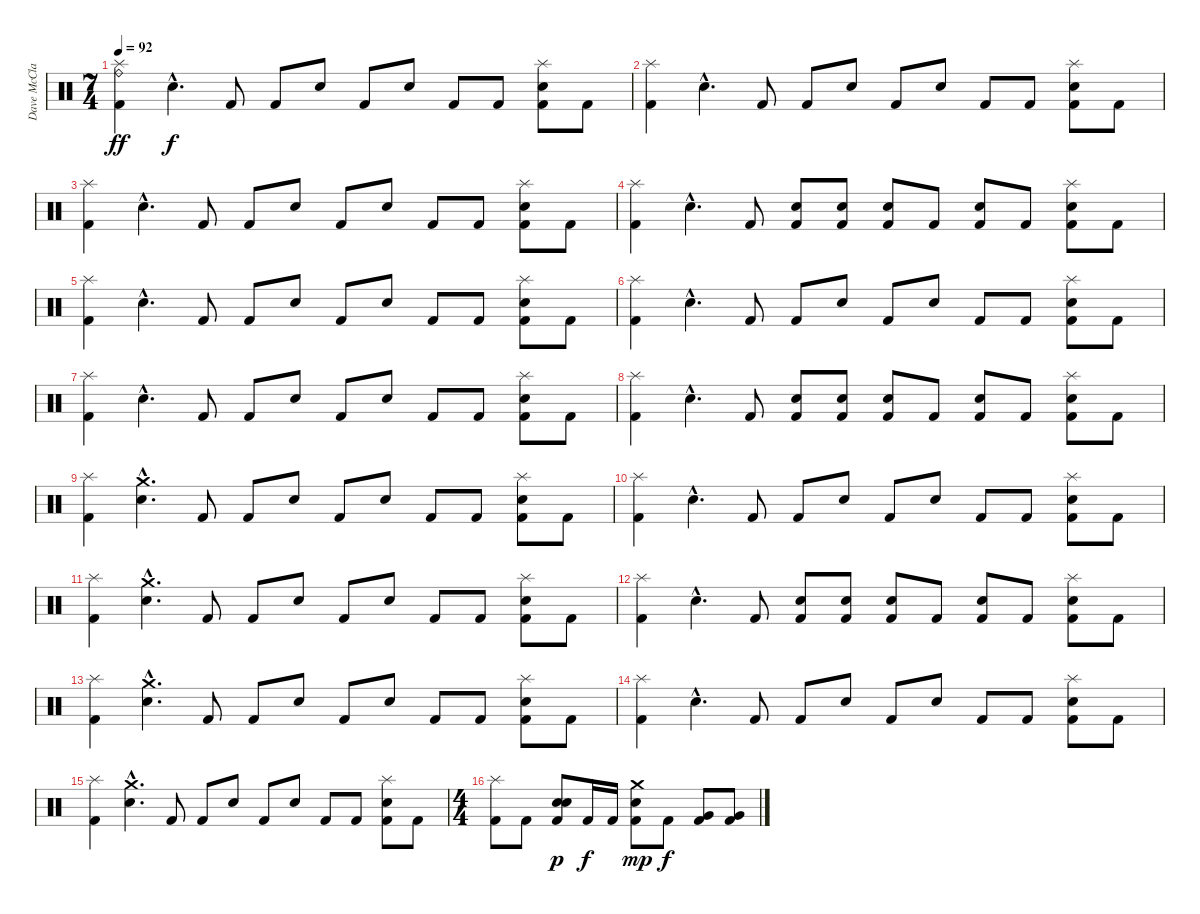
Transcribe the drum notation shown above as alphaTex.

\track ("Dave McClain" "Dave McCla") {instrument percussion}
\staff {score}
\articulation defaults
\ts (7 4)
\tempo 92
\clef neutral
\ks c
("Ride (bell)" "Splash (hit)" "Kick (hit) 2").4{dy ff} "Snare (hit) 2"{hac}.4{d dy f} "Kick (hit) 2".8 "Kick (hit) 2".8 "Electric Snare (hit)".8 "Kick (hit) 2".8 "Electric Snare (hit)".8 "Kick (hit) 2".8 "Kick (hit) 2".8 ("Splash (hit)" "Electric Snare (hit)" "Kick (hit) 2").8 "Kick (hit) 2".8 |
("Splash (hit)" "Kick (hit) 2").4 "Snare (hit) 2"{hac}.4{d} "Kick (hit) 2".8 "Kick (hit) 2".8 "Electric Snare (hit)".8 "Kick (hit) 2".8 "Electric Snare (hit)".8 "Kick (hit) 2".8 "Kick (hit) 2".8 ("Splash (hit)" "Electric Snare (hit)" "Kick (hit) 2").8 "Kick (hit) 2".8 |
("Splash (hit)" "Kick (hit) 2").4 "Snare (hit) 2"{hac}.4{d} "Kick (hit) 2".8 "Kick (hit) 2".8 "Electric Snare (hit)".8 "Kick (hit) 2".8 "Electric Snare (hit)".8 "Kick (hit) 2".8 "Kick (hit) 2".8 ("Splash (hit)" "Electric Snare (hit)" "Kick (hit) 2").8 "Kick (hit) 2".8 |
("Splash (hit)" "Kick (hit) 2").4 "Snare (hit) 2"{hac}.4{d} "Kick (hit) 2".8 ("Electric Snare (hit)" "Kick (hit) 2").8 ("Electric Snare (hit)" "Kick (hit) 2").8 ("Electric Snare (hit)" "Kick (hit) 2").8 "Kick (hit) 2".8 ("Electric Snare (hit)" "Kick (hit) 2").8 "Kick (hit) 2".8 ("Splash (hit)" "Electric Snare (hit)" "Kick (hit) 2").8 "Kick (hit) 2".8 |
("Splash (hit)" "Kick (hit) 2").4 "Snare (hit) 2"{hac}.4{d} "Kick (hit) 2".8 "Kick (hit) 2".8 "Electric Snare (hit)".8 "Kick (hit) 2".8 "Electric Snare (hit)".8 "Kick (hit) 2".8 "Kick (hit) 2".8 ("Splash (hit)" "Electric Snare (hit)" "Kick (hit) 2").8 "Kick (hit) 2".8 |
("Splash (hit)" "Kick (hit) 2").4 "Snare (hit) 2"{hac}.4{d} "Kick (hit) 2".8 "Kick (hit) 2".8 "Electric Snare (hit)".8 "Kick (hit) 2".8 "Electric Snare (hit)".8 "Kick (hit) 2".8 "Kick (hit) 2".8 ("Splash (hit)" "Electric Snare (hit)" "Kick (hit) 2").8 "Kick (hit) 2".8 |
("Splash (hit)" "Kick (hit) 2").4 "Snare (hit) 2"{hac}.4{d} "Kick (hit) 2".8 "Kick (hit) 2".8 "Electric Snare (hit)".8 "Kick (hit) 2".8 "Electric Snare (hit)".8 "Kick (hit) 2".8 "Kick (hit) 2".8 ("Splash (hit)" "Electric Snare (hit)" "Kick (hit) 2").8 "Kick (hit) 2".8 |
("Splash (hit)" "Kick (hit) 2").4 "Snare (hit) 2"{hac}.4{d} "Kick (hit) 2".8 ("Electric Snare (hit)" "Kick (hit) 2").8 ("Electric Snare (hit)" "Kick (hit) 2").8 ("Electric Snare (hit)" "Kick (hit) 2").8 "Kick (hit) 2".8 ("Electric Snare (hit)" "Kick (hit) 2").8 "Kick (hit) 2".8 ("Splash (hit)" "Electric Snare (hit)" "Kick (hit) 2").8 "Kick (hit) 2".8 |
("Splash (hit)" "Kick (hit) 2").4 ("Crash medium (hit)"{hac} "Snare (hit) 2"{hac}).4{d} "Kick (hit) 2".8 "Kick (hit) 2".8 "Electric Snare (hit)".8 "Kick (hit) 2".8 "Electric Snare (hit)".8 "Kick (hit) 2".8 "Kick (hit) 2".8 ("Splash (hit)" "Electric Snare (hit)" "Kick (hit) 2").8 "Kick (hit) 2".8 |
("Splash (hit)" "Kick (hit) 2").4 "Snare (hit) 2"{hac}.4{d} "Kick (hit) 2".8 "Kick (hit) 2".8 "Electric Snare (hit)".8 "Kick (hit) 2".8 "Electric Snare (hit)".8 "Kick (hit) 2".8 "Kick (hit) 2".8 ("Splash (hit)" "Electric Snare (hit)" "Kick (hit) 2").8 "Kick (hit) 2".8 |
("Splash (hit)" "Kick (hit) 2").4 ("Crash medium (hit)"{hac} "Snare (hit) 2"{hac}).4{d} "Kick (hit) 2".8 "Kick (hit) 2".8 "Electric Snare (hit)".8 "Kick (hit) 2".8 "Electric Snare (hit)".8 "Kick (hit) 2".8 "Kick (hit) 2".8 ("Splash (hit)" "Electric Snare (hit)" "Kick (hit) 2").8 "Kick (hit) 2".8 |
("Splash (hit)" "Kick (hit) 2").4 "Snare (hit) 2"{hac}.4{d} "Kick (hit) 2".8 ("Electric Snare (hit)" "Kick (hit) 2").8 ("Electric Snare (hit)" "Kick (hit) 2").8 ("Electric Snare (hit)" "Kick (hit) 2").8 "Kick (hit) 2".8 ("Electric Snare (hit)" "Kick (hit) 2").8 "Kick (hit) 2".8 ("Splash (hit)" "Electric Snare (hit)" "Kick (hit) 2").8 "Kick (hit) 2".8 |
("Splash (hit)" "Kick (hit) 2").4 ("Crash medium (hit)"{hac} "Snare (hit) 2"{hac}).4{d} "Kick (hit) 2".8 "Kick (hit) 2".8 "Electric Snare (hit)".8 "Kick (hit) 2".8 "Electric Snare (hit)".8 "Kick (hit) 2".8 "Kick (hit) 2".8 ("Splash (hit)" "Electric Snare (hit)" "Kick (hit) 2").8 "Kick (hit) 2".8 |
("Splash (hit)" "Kick (hit) 2").4 "Snare (hit) 2"{hac}.4{d} "Kick (hit) 2".8 "Kick (hit) 2".8 "Electric Snare (hit)".8 "Kick (hit) 2".8 "Electric Snare (hit)".8 "Kick (hit) 2".8 "Kick (hit) 2".8 ("Splash (hit)" "Electric Snare (hit)" "Kick (hit) 2").8 "Kick (hit) 2".8 |
("Splash (hit)" "Kick (hit) 2").4 ("Crash medium (hit)"{hac} "Snare (hit) 2"{hac}).4{d} "Kick (hit) 2".8 "Kick (hit) 2".8 "Electric Snare (hit)".8 "Kick (hit) 2".8 "Electric Snare (hit)".8 "Kick (hit) 2".8 "Kick (hit) 2".8 ("Splash (hit)" "Electric Snare (hit)" "Kick (hit) 2").8 "Kick (hit) 2".8 |
\ts (4 4)
("Splash (hit)" "Kick (hit) 2").8{volume 13} "Kick (hit) 2".8 ("Electric Snare (hit)" "Snare (hit) 2" "Kick (hit) 2").8{dy p} "Kick (hit) 2".16{dy f} "Kick (hit) 2".16 ("Crash medium (hit)" "Electric Snare (hit)" "Kick (hit) 2").8{dy mp} "Kick (hit) 2".8{dy f} ("Very Low Tom (hit)" "Kick (hit) 2").8 ("Very Low Tom (hit)" "Kick (hit) 2").8
